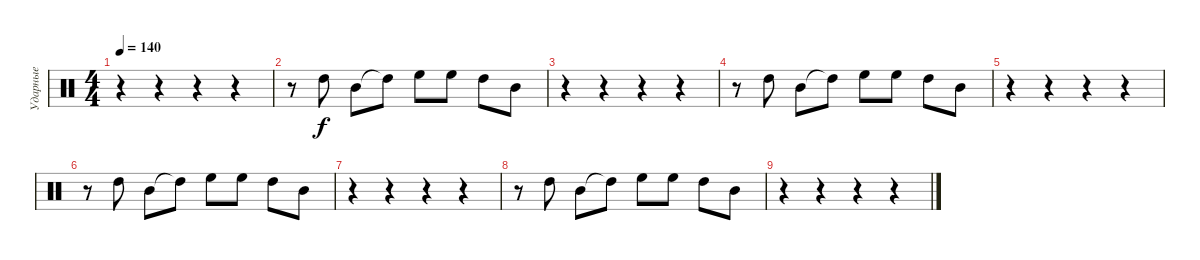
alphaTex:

\track ("Ударные" "Ударные") {instrument percussion}
\staff {score}
\articulation defaults
\ts (4 4)
\tempo 140
\clef neutral
\ks c
r.4{dy f} r.4 r.4 r.4 |
r.8 "High Tom (hit)".8 "Mid Tom (hit)".8 "High Tom (hit)"{t}.8 "High Floor Tom (hit)".8 "High Floor Tom (hit)".8 "High Tom (hit)".8 "Mid Tom (hit)".8 |
r.4 r.4 r.4 r.4 |
r.8 "High Tom (hit)".8 "Mid Tom (hit)".8 "High Tom (hit)"{t}.8 "High Floor Tom (hit)".8 "High Floor Tom (hit)".8 "High Tom (hit)".8 "Mid Tom (hit)".8 |
r.4 r.4 r.4 r.4 |
r.8 "High Tom (hit)".8 "Mid Tom (hit)".8 "High Tom (hit)"{t}.8 "High Floor Tom (hit)".8 "High Floor Tom (hit)".8 "High Tom (hit)".8 "Mid Tom (hit)".8 |
r.4 r.4 r.4 r.4 |
r.8 "High Tom (hit)".8 "Mid Tom (hit)".8 "High Tom (hit)"{t}.8 "High Floor Tom (hit)".8 "High Floor Tom (hit)".8 "High Tom (hit)".8 "Mid Tom (hit)".8 |
r.4 r.4 r.4 r.4
